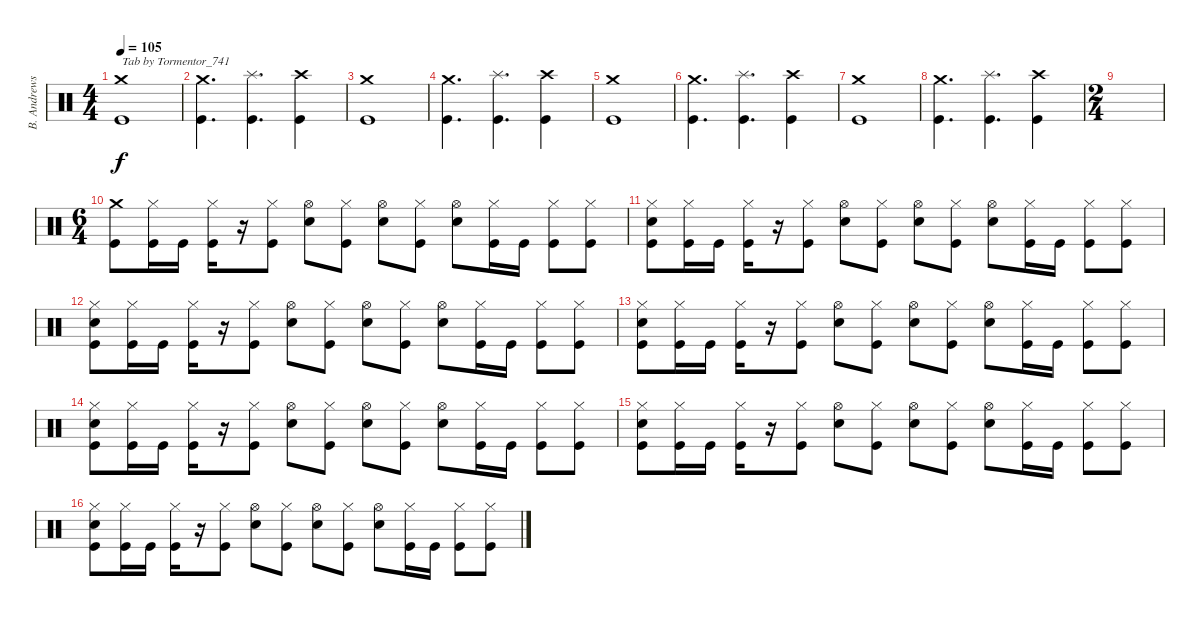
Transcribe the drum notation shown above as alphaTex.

\track ("B. Andrews" "B. Andrews") {instrument percussion}
\staff {score}
\articulation defaults
\ts (4 4)
\tempo 105
\clef neutral
\ks c
("Crash medium (hit)" "Kick (hit)").1{txt "Tab by Tormentor_741" dy f} |
("Crash medium (hit)" "Kick (hit)").4{d} ("Splash (hit)" "Kick (hit)").4{d} ("Crash high (hit)" "Kick (hit)").4 |
("Crash medium (hit)" "Kick (hit)").1 |
("Crash medium (hit)" "Kick (hit)").4{d} ("Splash (hit)" "Kick (hit)").4{d} ("Crash high (hit)" "Kick (hit)").4 |
("Crash medium (hit)" "Kick (hit)").1 |
("Crash medium (hit)" "Kick (hit)").4{d} ("Splash (hit)" "Kick (hit)").4{d} ("Crash high (hit)" "Kick (hit)").4 |
("Crash medium (hit)" "Kick (hit)").1 |
("Crash medium (hit)" "Kick (hit)").4{d} ("Splash (hit)" "Kick (hit)").4{d} ("Crash high (hit)" "Kick (hit)").4 |
\ts (2 4)
|
\ts (6 4)
("Crash medium (hit)" "Kick (hit)").8 ("Hi-Hat (closed)" "Kick (hit)").16 "Kick (hit)".16 ("Hi-Hat (closed)" "Kick (hit)").16 r.16 ("Hi-Hat (closed)" "Kick (hit)").8 ("Hi-Hat (open)" "Electric Snare (hit)").8 ("Hi-Hat (closed)" "Kick (hit)").8 ("Hi-Hat (open)" "Electric Snare (hit)").8 ("Hi-Hat (closed)" "Kick (hit)").8 ("Hi-Hat (open)" "Electric Snare (hit)").8 ("Hi-Hat (closed)" "Kick (hit)").16 "Kick (hit)".16 ("Hi-Hat (closed)" "Kick (hit)").8 ("Hi-Hat (closed)" "Kick (hit)").8 |
("Hi-Hat (closed)" "Electric Snare (hit)" "Kick (hit)").8 ("Hi-Hat (closed)" "Kick (hit)").16 "Kick (hit)".16 ("Hi-Hat (closed)" "Kick (hit)").16 r.16 ("Hi-Hat (closed)" "Kick (hit)").8 ("Hi-Hat (open)" "Electric Snare (hit)").8 ("Hi-Hat (closed)" "Kick (hit)").8 ("Hi-Hat (open)" "Electric Snare (hit)").8 ("Hi-Hat (closed)" "Kick (hit)").8 ("Hi-Hat (open)" "Electric Snare (hit)").8 ("Hi-Hat (closed)" "Kick (hit)").16 "Kick (hit)".16 ("Hi-Hat (closed)" "Kick (hit)").8 ("Hi-Hat (closed)" "Kick (hit)").8 |
("Hi-Hat (closed)" "Electric Snare (hit)" "Kick (hit)").8 ("Hi-Hat (closed)" "Kick (hit)").16 "Kick (hit)".16 ("Hi-Hat (closed)" "Kick (hit)").16 r.16 ("Hi-Hat (closed)" "Kick (hit)").8 ("Hi-Hat (open)" "Electric Snare (hit)").8 ("Hi-Hat (closed)" "Kick (hit)").8 ("Hi-Hat (open)" "Electric Snare (hit)").8 ("Hi-Hat (closed)" "Kick (hit)").8 ("Hi-Hat (open)" "Electric Snare (hit)").8 ("Hi-Hat (closed)" "Kick (hit)").16 "Kick (hit)".16 ("Hi-Hat (closed)" "Kick (hit)").8 ("Hi-Hat (closed)" "Kick (hit)").8 |
("Hi-Hat (closed)" "Electric Snare (hit)" "Kick (hit)").8 ("Hi-Hat (closed)" "Kick (hit)").16 "Kick (hit)".16 ("Hi-Hat (closed)" "Kick (hit)").16 r.16 ("Hi-Hat (closed)" "Kick (hit)").8 ("Hi-Hat (open)" "Electric Snare (hit)").8 ("Hi-Hat (closed)" "Kick (hit)").8 ("Hi-Hat (open)" "Electric Snare (hit)").8 ("Hi-Hat (closed)" "Kick (hit)").8 ("Hi-Hat (open)" "Electric Snare (hit)").8 ("Hi-Hat (closed)" "Kick (hit)").16 "Kick (hit)".16 ("Hi-Hat (closed)" "Kick (hit)").8 ("Hi-Hat (closed)" "Kick (hit)").8 |
("Hi-Hat (closed)" "Electric Snare (hit)" "Kick (hit)").8 ("Hi-Hat (closed)" "Kick (hit)").16 "Kick (hit)".16 ("Hi-Hat (closed)" "Kick (hit)").16 r.16 ("Hi-Hat (closed)" "Kick (hit)").8 ("Hi-Hat (open)" "Electric Snare (hit)").8 ("Hi-Hat (closed)" "Kick (hit)").8 ("Hi-Hat (open)" "Electric Snare (hit)").8 ("Hi-Hat (closed)" "Kick (hit)").8 ("Hi-Hat (open)" "Electric Snare (hit)").8 ("Hi-Hat (closed)" "Kick (hit)").16 "Kick (hit)".16 ("Hi-Hat (closed)" "Kick (hit)").8 ("Hi-Hat (closed)" "Kick (hit)").8 |
("Hi-Hat (closed)" "Electric Snare (hit)" "Kick (hit)").8 ("Hi-Hat (closed)" "Kick (hit)").16 "Kick (hit)".16 ("Hi-Hat (closed)" "Kick (hit)").16 r.16 ("Hi-Hat (closed)" "Kick (hit)").8 ("Hi-Hat (open)" "Electric Snare (hit)").8 ("Hi-Hat (closed)" "Kick (hit)").8 ("Hi-Hat (open)" "Electric Snare (hit)").8 ("Hi-Hat (closed)" "Kick (hit)").8 ("Hi-Hat (open)" "Electric Snare (hit)").8 ("Hi-Hat (closed)" "Kick (hit)").16 "Kick (hit)".16 ("Hi-Hat (closed)" "Kick (hit)").8 ("Hi-Hat (closed)" "Kick (hit)").8 |
("Hi-Hat (closed)" "Electric Snare (hit)" "Kick (hit)").8 ("Hi-Hat (closed)" "Kick (hit)").16 "Kick (hit)".16 ("Hi-Hat (closed)" "Kick (hit)").16 r.16 ("Hi-Hat (closed)" "Kick (hit)").8 ("Hi-Hat (open)" "Electric Snare (hit)").8 ("Hi-Hat (closed)" "Kick (hit)").8 ("Hi-Hat (open)" "Electric Snare (hit)").8 ("Hi-Hat (closed)" "Kick (hit)").8 ("Hi-Hat (open)" "Electric Snare (hit)").8 ("Hi-Hat (closed)" "Kick (hit)").16 "Kick (hit)".16 ("Hi-Hat (closed)" "Kick (hit)").8 ("Hi-Hat (closed)" "Kick (hit)").8
